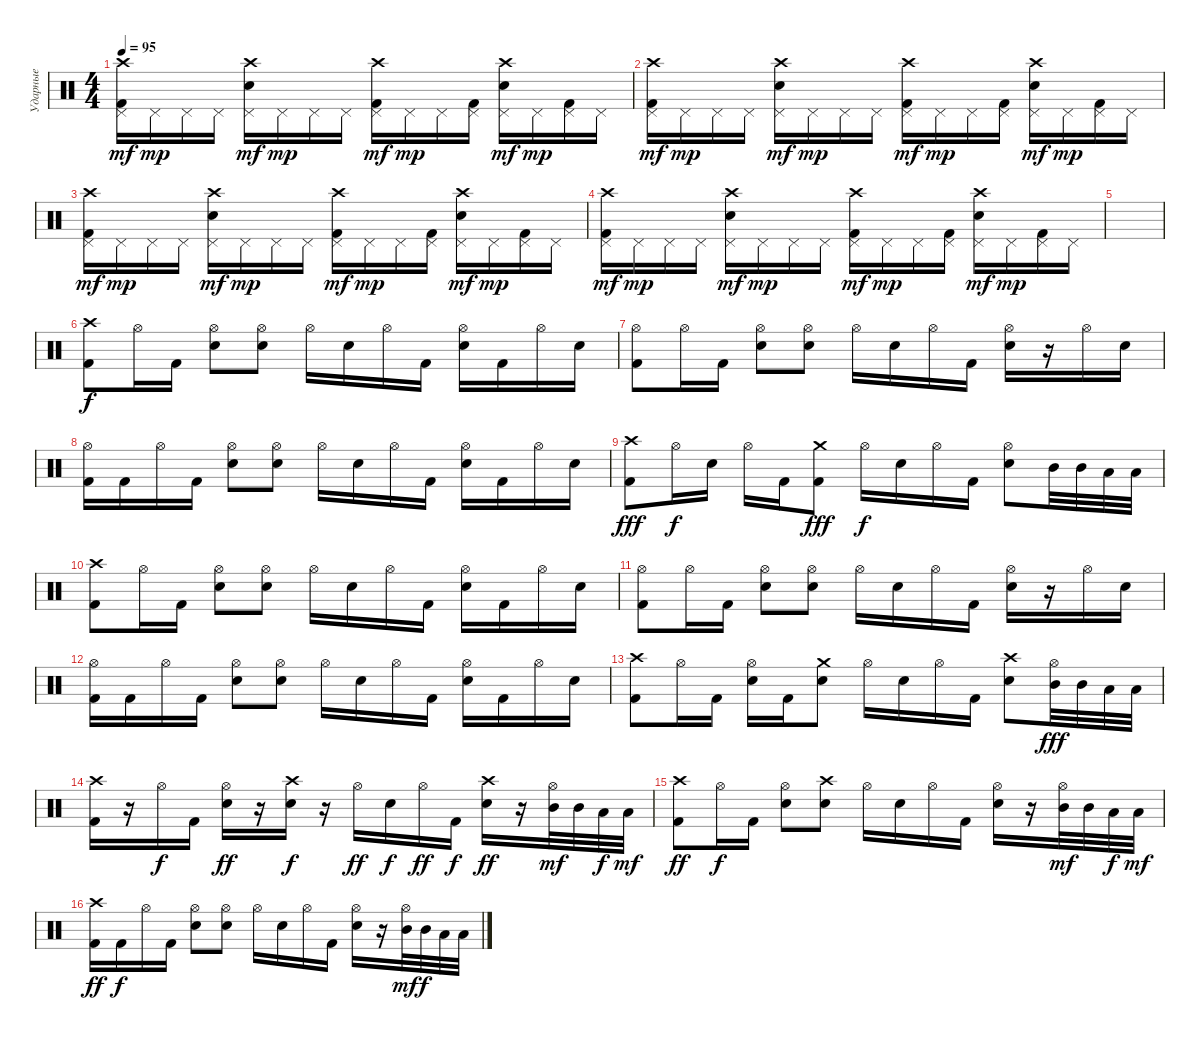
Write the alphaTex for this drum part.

\track ("Ударные" "Ударные") {instrument percussion}
\staff {score}
\articulation defaults
\ts (4 4)
\tempo 95
\clef neutral
\ks c
("Crash high (hit)" "Kick (hit) 2" "Pedal Hi-Hat (hit)").16{dy mf} "Pedal Hi-Hat (hit)".16{dy mp} "Pedal Hi-Hat (hit)".16 "Pedal Hi-Hat (hit)".16 ("Crash high (hit)" "Electric Snare (hit)" "Pedal Hi-Hat (hit)").16{dy mf} "Pedal Hi-Hat (hit)".16{dy mp} "Pedal Hi-Hat (hit)".16 "Pedal Hi-Hat (hit)".16 ("Crash high (hit)" "Kick (hit) 2" "Pedal Hi-Hat (hit)").16{dy mf} "Pedal Hi-Hat (hit)".16{dy mp} "Pedal Hi-Hat (hit)".16 ("Kick (hit) 2" "Pedal Hi-Hat (hit)").16 ("Crash high (hit)" "Electric Snare (hit)" "Pedal Hi-Hat (hit)").16{dy mf} "Pedal Hi-Hat (hit)".16{dy mp} ("Kick (hit) 2" "Pedal Hi-Hat (hit)").16 "Pedal Hi-Hat (hit)".16 |
("Crash high (hit)" "Kick (hit) 2" "Pedal Hi-Hat (hit)").16{dy mf} "Pedal Hi-Hat (hit)".16{dy mp} "Pedal Hi-Hat (hit)".16 "Pedal Hi-Hat (hit)".16 ("Crash high (hit)" "Electric Snare (hit)" "Pedal Hi-Hat (hit)").16{dy mf} "Pedal Hi-Hat (hit)".16{dy mp} "Pedal Hi-Hat (hit)".16 "Pedal Hi-Hat (hit)".16 ("Crash high (hit)" "Kick (hit) 2" "Pedal Hi-Hat (hit)").16{dy mf} "Pedal Hi-Hat (hit)".16{dy mp} "Pedal Hi-Hat (hit)".16 ("Kick (hit) 2" "Pedal Hi-Hat (hit)").16 ("Crash high (hit)" "Electric Snare (hit)" "Pedal Hi-Hat (hit)").16{dy mf} "Pedal Hi-Hat (hit)".16{dy mp} ("Kick (hit) 2" "Pedal Hi-Hat (hit)").16 "Pedal Hi-Hat (hit)".16 |
("Crash high (hit)" "Kick (hit) 2" "Pedal Hi-Hat (hit)").16{dy mf} "Pedal Hi-Hat (hit)".16{dy mp} "Pedal Hi-Hat (hit)".16 "Pedal Hi-Hat (hit)".16 ("Crash high (hit)" "Electric Snare (hit)" "Pedal Hi-Hat (hit)").16{dy mf} "Pedal Hi-Hat (hit)".16{dy mp} "Pedal Hi-Hat (hit)".16 "Pedal Hi-Hat (hit)".16 ("Crash high (hit)" "Kick (hit) 2" "Pedal Hi-Hat (hit)").16{dy mf} "Pedal Hi-Hat (hit)".16{dy mp} "Pedal Hi-Hat (hit)".16 ("Kick (hit) 2" "Pedal Hi-Hat (hit)").16 ("Crash high (hit)" "Electric Snare (hit)" "Pedal Hi-Hat (hit)").16{dy mf} "Pedal Hi-Hat (hit)".16{dy mp} ("Kick (hit) 2" "Pedal Hi-Hat (hit)").16 "Pedal Hi-Hat (hit)".16 |
("Crash high (hit)" "Kick (hit) 2" "Pedal Hi-Hat (hit)").16{dy mf} "Pedal Hi-Hat (hit)".16{dy mp} "Pedal Hi-Hat (hit)".16 "Pedal Hi-Hat (hit)".16 ("Crash high (hit)" "Electric Snare (hit)" "Pedal Hi-Hat (hit)").16{dy mf} "Pedal Hi-Hat (hit)".16{dy mp} "Pedal Hi-Hat (hit)".16 "Pedal Hi-Hat (hit)".16 ("Crash high (hit)" "Kick (hit) 2" "Pedal Hi-Hat (hit)").16{dy mf} "Pedal Hi-Hat (hit)".16{dy mp} "Pedal Hi-Hat (hit)".16 ("Kick (hit) 2" "Pedal Hi-Hat (hit)").16 ("Crash high (hit)" "Electric Snare (hit)" "Pedal Hi-Hat (hit)").16{dy mf} "Pedal Hi-Hat (hit)".16{dy mp} ("Kick (hit) 2" "Pedal Hi-Hat (hit)").16 "Pedal Hi-Hat (hit)".16 |
|
("Crash high (hit)" "Kick (hit) 2").8{dy f} "Hi-Hat (open)".16 "Kick (hit) 2".16 ("Hi-Hat (open)" "Electric Snare (hit)").8 ("Hi-Hat (open)" "Electric Snare (hit)").8 "Hi-Hat (open)".16 "Electric Snare (hit)".16 "Hi-Hat (open)".16 "Kick (hit) 2".16 ("Hi-Hat (open)" "Electric Snare (hit)").16 "Kick (hit) 2".16 "Hi-Hat (open)".16 "Electric Snare (hit)".16 |
("Hi-Hat (open)" "Kick (hit) 2").8 "Hi-Hat (open)".16 "Kick (hit) 2".16 ("Hi-Hat (open)" "Electric Snare (hit)").8 ("Hi-Hat (open)" "Electric Snare (hit)").8 "Hi-Hat (open)".16 "Electric Snare (hit)".16 "Hi-Hat (open)".16 "Kick (hit) 2".16 ("Hi-Hat (open)" "Electric Snare (hit)").16 r.16 "Hi-Hat (open)".16 "Electric Snare (hit)".16 |
("Hi-Hat (open)" "Kick (hit) 2").16 "Kick (hit) 2".16 "Hi-Hat (open)".16 "Kick (hit) 2".16 ("Hi-Hat (open)" "Electric Snare (hit)").8 ("Hi-Hat (open)" "Electric Snare (hit)").8 "Hi-Hat (open)".16 "Electric Snare (hit)".16 "Hi-Hat (open)".16 "Kick (hit) 2".16 ("Hi-Hat (open)" "Electric Snare (hit)").16 "Kick (hit) 2".16 "Hi-Hat (open)".16 "Electric Snare (hit)".16 |
("Crash high (hit)" "Kick (hit) 2").8{dy fff} "Hi-Hat (open)".16{dy f} "Electric Snare (hit)".16 "Hi-Hat (open)".16 "Kick (hit) 2".16 ("Crash medium (hit)" "Kick (hit) 2").8{dy fff} "Hi-Hat (open)".16{dy f} "Electric Snare (hit)".16 "Hi-Hat (open)".16 "Kick (hit) 2".16 ("Hi-Hat (open)" "Electric Snare (hit)").8 "Mid Tom (hit)".32 "Mid Tom (hit)".32 "Low Tom (hit)".32 "Low Tom (hit)".32 |
("Crash high (hit)" "Kick (hit) 2").8 "Hi-Hat (open)".16 "Kick (hit) 2".16 ("Hi-Hat (open)" "Electric Snare (hit)").8 ("Hi-Hat (open)" "Electric Snare (hit)").8 "Hi-Hat (open)".16 "Electric Snare (hit)".16 "Hi-Hat (open)".16 "Kick (hit) 2".16 ("Hi-Hat (open)" "Electric Snare (hit)").16 "Kick (hit) 2".16 "Hi-Hat (open)".16 "Electric Snare (hit)".16 |
("Hi-Hat (open)" "Kick (hit) 2").8 "Hi-Hat (open)".16 "Kick (hit) 2".16 ("Hi-Hat (open)" "Electric Snare (hit)").8 ("Hi-Hat (open)" "Electric Snare (hit)").8 "Hi-Hat (open)".16 "Electric Snare (hit)".16 "Hi-Hat (open)".16 "Kick (hit) 2".16 ("Hi-Hat (open)" "Electric Snare (hit)").16 r.16 "Hi-Hat (open)".16 "Electric Snare (hit)".16 |
("Hi-Hat (open)" "Kick (hit) 2").16 "Kick (hit) 2".16 "Hi-Hat (open)".16 "Kick (hit) 2".16 ("Hi-Hat (open)" "Electric Snare (hit)").8 ("Hi-Hat (open)" "Electric Snare (hit)").8 "Hi-Hat (open)".16 "Electric Snare (hit)".16 "Hi-Hat (open)".16 "Kick (hit) 2".16 ("Hi-Hat (open)" "Electric Snare (hit)").16 "Kick (hit) 2".16 "Hi-Hat (open)".16 "Electric Snare (hit)".16 |
("Crash high (hit)" "Kick (hit) 2").8 "Hi-Hat (open)".16 "Kick (hit) 2".16 ("Hi-Hat (open)" "Electric Snare (hit)").16 "Kick (hit) 2".16 ("Crash medium (hit)" "Electric Snare (hit)").8 "Hi-Hat (open)".16 "Electric Snare (hit)".16 "Hi-Hat (open)".16 "Kick (hit) 2".16 ("Crash high (hit)" "Electric Snare (hit)").8 ("Hi-Hat (open)" "Mid Tom (hit)").32{dy fff} "Mid Tom (hit)".32 "Low Tom (hit)".32 "Low Tom (hit)".32 |
("Crash high (hit)" "Kick (hit) 2").16 r.16 "Hi-Hat (open)".16{dy f} "Kick (hit) 2".16 ("Hi-Hat (open)" "Electric Snare (hit)").16{dy ff} r.16 ("Crash high (hit)" "Electric Snare (hit)").16{dy f} r.16 "Hi-Hat (open)".16{dy ff} "Electric Snare (hit)".16{dy f} "Hi-Hat (open)".16{dy ff} "Kick (hit) 2".16{dy f} ("Crash high (hit)" "Electric Snare (hit)").16{dy ff} r.16 ("Hi-Hat (open)" "Mid Tom (hit)").32{dy mf} "Mid Tom (hit)".32 "Low Tom (hit)".32{dy f} "Low Tom (hit)".32{dy mf} |
("Crash high (hit)" "Kick (hit) 2").8{dy ff} "Hi-Hat (open)".16{dy f} "Kick (hit) 2".16 ("Hi-Hat (open)" "Electric Snare (hit)").8 ("Crash high (hit)" "Electric Snare (hit)").8 "Hi-Hat (open)".16 "Electric Snare (hit)".16 "Hi-Hat (open)".16 "Kick (hit) 2".16 ("Hi-Hat (open)" "Electric Snare (hit)").16 r.16 ("Hi-Hat (open)" "Mid Tom (hit)").32{dy mf} "Mid Tom (hit)".32 "Low Tom (hit)".32{dy f} "Low Tom (hit)".32{dy mf} |
("Crash high (hit)" "Kick (hit) 2").16{dy ff} "Kick (hit) 2".16{dy f} "Hi-Hat (open)".16 "Kick (hit) 2".16 ("Hi-Hat (open)" "Electric Snare (hit)").8 ("Hi-Hat (open)" "Electric Snare (hit)").8 "Hi-Hat (open)".16 "Electric Snare (hit)".16 "Hi-Hat (open)".16 "Kick (hit) 2".16 ("Hi-Hat (open)" "Electric Snare (hit)").16 r.16 ("Hi-Hat (open)" "Mid Tom (hit)").32{dy mf} "Mid Tom (hit)".32{dy f} "Low Tom (hit)".32 "Low Tom (hit)".32
